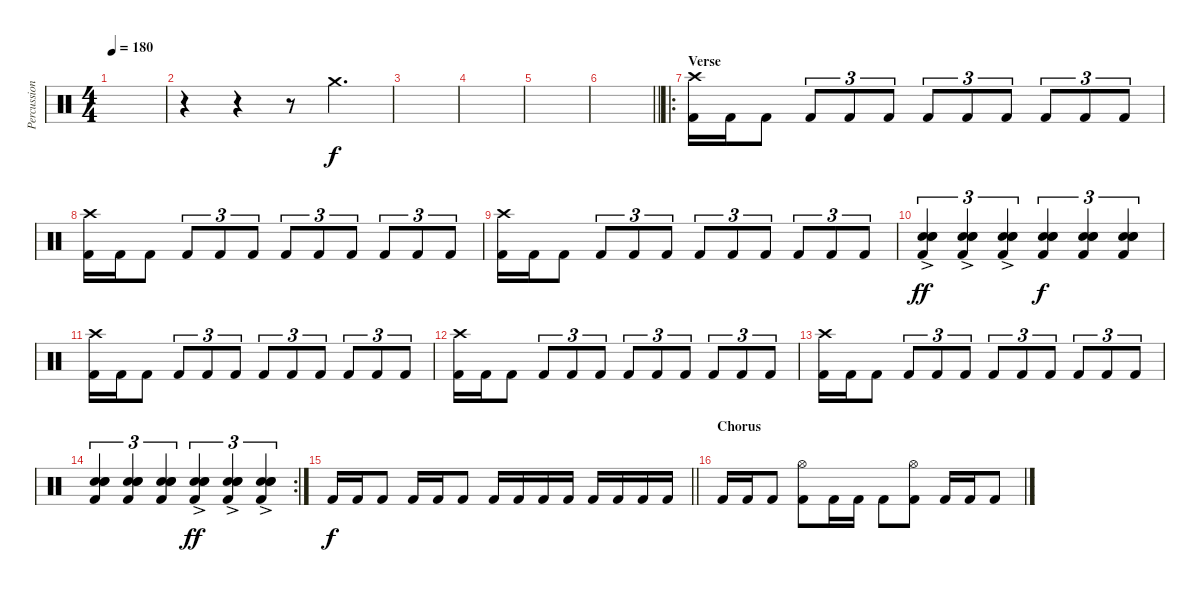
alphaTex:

\track ("Percussion" "Percussion") {instrument percussion}
\staff {score}
\articulation defaults
\ts (4 4)
\tempo 180
\clef neutral
\ks c
|
r.4 r.4 r.8 "Crash medium (hit)".4{d} |
|
|
|
\barLineRight lightlight
|
\ro
\section ("" "Verse")
("Kick (hit) 2" "Crash high (hit)").16 "Kick (hit) 2".16 "Kick (hit) 2".8 "Kick (hit) 2".8{tu (3 2)} "Kick (hit) 2".8{tu (3 2)} "Kick (hit) 2".8{tu (3 2)} "Kick (hit) 2".8{tu (3 2)} "Kick (hit) 2".8{tu (3 2)} "Kick (hit) 2".8{tu (3 2)} "Kick (hit) 2".8{tu (3 2)} "Kick (hit) 2".8{tu (3 2)} "Kick (hit) 2".8{tu (3 2)} |
("Kick (hit) 2" "Crash high (hit)").16 "Kick (hit) 2".16 "Kick (hit) 2".8 "Kick (hit) 2".8{tu (3 2)} "Kick (hit) 2".8{tu (3 2)} "Kick (hit) 2".8{tu (3 2)} "Kick (hit) 2".8{tu (3 2)} "Kick (hit) 2".8{tu (3 2)} "Kick (hit) 2".8{tu (3 2)} "Kick (hit) 2".8{tu (3 2)} "Kick (hit) 2".8{tu (3 2)} "Kick (hit) 2".8{tu (3 2)} |
("Kick (hit) 2" "Crash high (hit)").16 "Kick (hit) 2".16 "Kick (hit) 2".8 "Kick (hit) 2".8{tu (3 2)} "Kick (hit) 2".8{tu (3 2)} "Kick (hit) 2".8{tu (3 2)} "Kick (hit) 2".8{tu (3 2)} "Kick (hit) 2".8{tu (3 2)} "Kick (hit) 2".8{tu (3 2)} "Kick (hit) 2".8{tu (3 2)} "Kick (hit) 2".8{tu (3 2)} "Kick (hit) 2".8{tu (3 2)} |
("Kick (hit) 2"{ac} "Snare (hit)"{ac} "Snare (hit)" "Snare (hit)").4{tu (3 2) dy ff} ("Kick (hit) 2"{ac} "Snare (hit)"{ac} "Snare (hit)" "Snare (hit)").4{tu (3 2)} ("Kick (hit) 2"{ac} "Snare (hit)"{ac} "Snare (hit)" "Snare (hit)").4{tu (3 2)} ("Kick (hit) 2" "Snare (hit)" "Snare (hit)" "Snare (hit)").4{tu (3 2) dy f} ("Kick (hit) 2" "Snare (hit)" "Snare (hit)" "Snare (hit)").4{tu (3 2)} ("Kick (hit) 2" "Snare (hit)" "Snare (hit)" "Snare (hit)").4{tu (3 2)} |
("Kick (hit) 2" "Crash high (hit)").16 "Kick (hit) 2".16 "Kick (hit) 2".8 "Kick (hit) 2".8{tu (3 2)} "Kick (hit) 2".8{tu (3 2)} "Kick (hit) 2".8{tu (3 2)} "Kick (hit) 2".8{tu (3 2)} "Kick (hit) 2".8{tu (3 2)} "Kick (hit) 2".8{tu (3 2)} "Kick (hit) 2".8{tu (3 2)} "Kick (hit) 2".8{tu (3 2)} "Kick (hit) 2".8{tu (3 2)} |
("Kick (hit) 2" "Crash high (hit)").16 "Kick (hit) 2".16 "Kick (hit) 2".8 "Kick (hit) 2".8{tu (3 2)} "Kick (hit) 2".8{tu (3 2)} "Kick (hit) 2".8{tu (3 2)} "Kick (hit) 2".8{tu (3 2)} "Kick (hit) 2".8{tu (3 2)} "Kick (hit) 2".8{tu (3 2)} "Kick (hit) 2".8{tu (3 2)} "Kick (hit) 2".8{tu (3 2)} "Kick (hit) 2".8{tu (3 2)} |
("Kick (hit) 2" "Crash high (hit)").16 "Kick (hit) 2".16 "Kick (hit) 2".8 "Kick (hit) 2".8{tu (3 2)} "Kick (hit) 2".8{tu (3 2)} "Kick (hit) 2".8{tu (3 2)} "Kick (hit) 2".8{tu (3 2)} "Kick (hit) 2".8{tu (3 2)} "Kick (hit) 2".8{tu (3 2)} "Kick (hit) 2".8{tu (3 2)} "Kick (hit) 2".8{tu (3 2)} "Kick (hit) 2".8{tu (3 2)} |
\rc 2
("Kick (hit) 2" "Snare (hit)" "Snare (hit)" "Snare (hit)").4{tu (3 2)} ("Kick (hit) 2" "Snare (hit)" "Snare (hit)" "Snare (hit)").4{tu (3 2)} ("Kick (hit) 2" "Snare (hit)" "Snare (hit)" "Snare (hit)").4{tu (3 2)} ("Kick (hit) 2"{ac} "Snare (hit)"{ac} "Snare (hit)"{ac} "Snare (hit)"{ac}).4{tu (3 2) dy ff} ("Kick (hit) 2"{ac} "Snare (hit)"{ac} "Snare (hit)"{ac} "Snare (hit)"{ac}).4{tu (3 2)} ("Kick (hit) 2"{ac} "Snare (hit)"{ac} "Snare (hit)"{ac} "Snare (hit)"{ac}).4{tu (3 2)} |
\barLineRight lightlight "Kick (hit) 2".16{dy f} "Kick (hit) 2".16 "Kick (hit) 2".8 "Kick (hit) 2".16 "Kick (hit) 2".16 "Kick (hit) 2".8 "Kick (hit) 2".16 "Kick (hit) 2".16 "Kick (hit) 2".16 "Kick (hit) 2".16 "Kick (hit) 2".16 "Kick (hit) 2".16 "Kick (hit) 2".16 "Kick (hit) 2".16
|
\section ("" "Chorus")
"Kick (hit) 2".16 "Kick (hit) 2".16 "Kick (hit) 2".8 ("Kick (hit) 2" "Hi-Hat (open)").8 "Kick (hit) 2".16 "Kick (hit) 2".16 "Kick (hit) 2".8 ("Kick (hit) 2" "Hi-Hat (open)").8 "Kick (hit) 2".16 "Kick (hit) 2".16 "Kick (hit) 2".8
